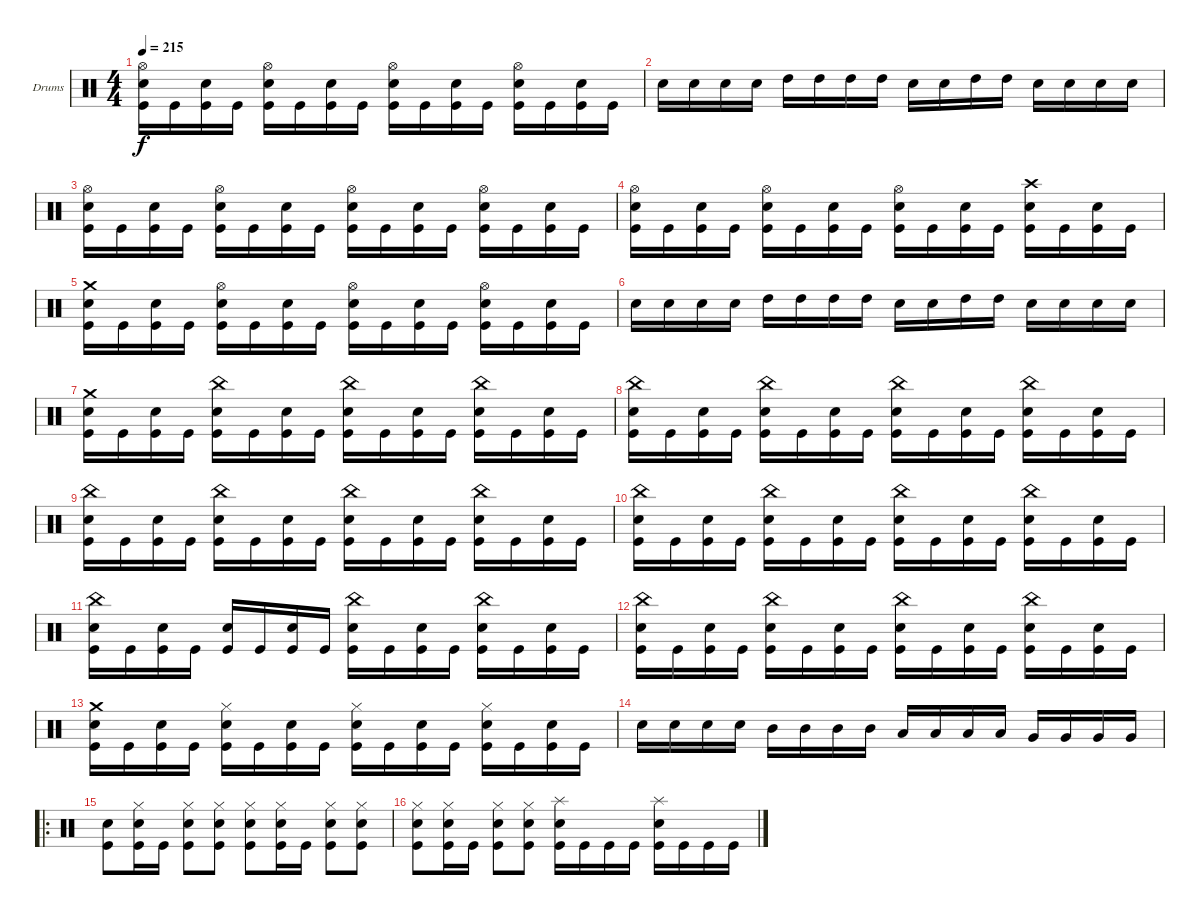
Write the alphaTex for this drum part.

\defaultSystemsLayout 4
\bracketExtendMode groupsimilarinstruments
\firstSystemTrackNameOrientation horizontal
\otherSystemsTrackNameOrientation horizontal
\track ("Trey Williams" "Drums") {instrument percussion}
\staff {score}
\articulation defaults
\ts (4 4)
\tempo 215
\clef neutral
\ks c
("Kick (hit)" "Snare (hit) 2" "Hi-Hat (open)").16{dy f} "Kick (hit)".16 ("Kick (hit)" "Snare (hit) 2").16 "Kick (hit)".16 ("Kick (hit)" "Snare (hit) 2" "Hi-Hat (open)").16 "Kick (hit)".16 ("Kick (hit)" "Snare (hit) 2").16 "Kick (hit)".16 ("Kick (hit)" "Snare (hit) 2" "Hi-Hat (open)").16 "Kick (hit)".16 ("Kick (hit)" "Snare (hit) 2").16 "Kick (hit)".16 ("Kick (hit)" "Snare (hit) 2" "Hi-Hat (open)").16 "Kick (hit)".16 ("Kick (hit)" "Snare (hit) 2").16 "Kick (hit)".16 |
"Snare (hit) 2".16 "Snare (hit) 2".16 "Snare (hit) 2".16 "Snare (hit) 2".16 "High Tom (hit)".16 "High Tom (hit)".16 "High Tom (hit)".16 "High Tom (hit)".16 "Snare (hit) 2".16 "Snare (hit) 2".16 "High Tom (hit)".16 "High Tom (hit)".16 "Snare (hit) 2".16 "Snare (hit) 2".16 "Snare (hit) 2".16 "Snare (hit) 2".16 |
("Kick (hit)" "Snare (hit) 2" "Hi-Hat (open)").16 "Kick (hit)".16 ("Kick (hit)" "Snare (hit) 2").16 "Kick (hit)".16 ("Kick (hit)" "Snare (hit) 2" "Hi-Hat (open)").16 "Kick (hit)".16 ("Kick (hit)" "Snare (hit) 2").16 "Kick (hit)".16 ("Kick (hit)" "Snare (hit) 2" "Hi-Hat (open)").16 "Kick (hit)".16 ("Kick (hit)" "Snare (hit) 2").16 "Kick (hit)".16 ("Kick (hit)" "Snare (hit) 2" "Hi-Hat (open)").16 "Kick (hit)".16 ("Kick (hit)" "Snare (hit) 2").16 "Kick (hit)".16 |
("Kick (hit)" "Snare (hit) 2" "Hi-Hat (open)").16 "Kick (hit)".16 ("Kick (hit)" "Snare (hit) 2").16 "Kick (hit)".16 ("Kick (hit)" "Snare (hit) 2" "Hi-Hat (open)").16 "Kick (hit)".16 ("Kick (hit)" "Snare (hit) 2").16 "Kick (hit)".16 ("Kick (hit)" "Snare (hit) 2" "Hi-Hat (open)").16 "Kick (hit)".16 ("Kick (hit)" "Snare (hit) 2").16 "Kick (hit)".16 ("Kick (hit)" "Snare (hit) 2" "Crash high (hit)").16 "Kick (hit)".16 ("Kick (hit)" "Snare (hit) 2").16 "Kick (hit)".16 |
("Kick (hit)" "Snare (hit) 2" "Crash medium (hit)").16 "Kick (hit)".16 ("Kick (hit)" "Snare (hit) 2").16 "Kick (hit)".16 ("Kick (hit)" "Snare (hit) 2" "Hi-Hat (open)").16 "Kick (hit)".16 ("Kick (hit)" "Snare (hit) 2").16 "Kick (hit)".16 ("Kick (hit)" "Snare (hit) 2" "Hi-Hat (open)").16 "Kick (hit)".16 ("Kick (hit)" "Snare (hit) 2").16 "Kick (hit)".16 ("Kick (hit)" "Snare (hit) 2" "Hi-Hat (open)").16 "Kick (hit)".16 ("Kick (hit)" "Snare (hit) 2").16 "Kick (hit)".16 |
"Snare (hit) 2".16 "Snare (hit) 2".16 "Snare (hit) 2".16 "Snare (hit) 2".16 "High Tom (hit)".16 "High Tom (hit)".16 "High Tom (hit)".16 "High Tom (hit)".16 "Snare (hit) 2".16 "Snare (hit) 2".16 "High Tom (hit)".16 "High Tom (hit)".16 "Snare (hit) 2".16 "Snare (hit) 2".16 "Snare (hit) 2".16 "Snare (hit) 2".16 |
("Kick (hit)" "Snare (hit) 2" "Crash medium (hit)").16 "Kick (hit)".16 ("Kick (hit)" "Snare (hit) 2").16 "Kick (hit)".16 ("Kick (hit)" "Snare (hit) 2" "China (hit)").16 "Kick (hit)".16 ("Kick (hit)" "Snare (hit) 2").16 "Kick (hit)".16 ("Kick (hit)" "Snare (hit) 2" "China (hit)").16 "Kick (hit)".16 ("Kick (hit)" "Snare (hit) 2").16 "Kick (hit)".16 ("Kick (hit)" "Snare (hit) 2" "China (hit)").16 "Kick (hit)".16 ("Kick (hit)" "Snare (hit) 2").16 "Kick (hit)".16 |
("Kick (hit)" "Snare (hit) 2" "China (hit)").16 "Kick (hit)".16 ("Kick (hit)" "Snare (hit) 2").16 "Kick (hit)".16 ("Kick (hit)" "Snare (hit) 2" "China (hit)").16 "Kick (hit)".16 ("Kick (hit)" "Snare (hit) 2").16 "Kick (hit)".16 ("Kick (hit)" "Snare (hit) 2" "China (hit)").16 "Kick (hit)".16 ("Kick (hit)" "Snare (hit) 2").16 "Kick (hit)".16 ("Kick (hit)" "Snare (hit) 2" "China (hit)").16 "Kick (hit)".16 ("Kick (hit)" "Snare (hit) 2").16 "Kick (hit)".16 |
("Kick (hit)" "Snare (hit) 2" "China (hit)").16 "Kick (hit)".16 ("Kick (hit)" "Snare (hit) 2").16 "Kick (hit)".16 ("Kick (hit)" "Snare (hit) 2" "China (hit)").16 "Kick (hit)".16 ("Kick (hit)" "Snare (hit) 2").16 "Kick (hit)".16 ("Kick (hit)" "Snare (hit) 2" "China (hit)").16 "Kick (hit)".16 ("Kick (hit)" "Snare (hit) 2").16 "Kick (hit)".16 ("Kick (hit)" "Snare (hit) 2" "China (hit)").16 "Kick (hit)".16 ("Kick (hit)" "Snare (hit) 2").16 "Kick (hit)".16 |
("Kick (hit)" "Snare (hit) 2" "China (hit)").16 "Kick (hit)".16 ("Kick (hit)" "Snare (hit) 2").16 "Kick (hit)".16 ("Kick (hit)" "Snare (hit) 2" "China (hit)").16 "Kick (hit)".16 ("Kick (hit)" "Snare (hit) 2").16 "Kick (hit)".16 ("Kick (hit)" "Snare (hit) 2" "China (hit)").16 "Kick (hit)".16 ("Kick (hit)" "Snare (hit) 2").16 "Kick (hit)".16 ("Kick (hit)" "Snare (hit) 2" "China (hit)").16 "Kick (hit)".16 ("Kick (hit)" "Snare (hit) 2").16 "Kick (hit)".16 |
("Kick (hit)" "Snare (hit) 2" "China (hit)").16 "Kick (hit)".16 ("Kick (hit)" "Snare (hit) 2").16 "Kick (hit)".16 ("Kick (hit)" "Snare (hit) 2").16 "Kick (hit)".16 ("Kick (hit)" "Snare (hit) 2").16 "Kick (hit)".16 ("Kick (hit)" "Snare (hit) 2" "China (hit)").16 "Kick (hit)".16 ("Kick (hit)" "Snare (hit) 2").16 "Kick (hit)".16 ("Kick (hit)" "Snare (hit) 2" "China (hit)").16 "Kick (hit)".16 ("Kick (hit)" "Snare (hit) 2").16 "Kick (hit)".16 |
("Kick (hit)" "Snare (hit) 2" "China (hit)").16 "Kick (hit)".16 ("Kick (hit)" "Snare (hit) 2").16 "Kick (hit)".16 ("Kick (hit)" "Snare (hit) 2" "China (hit)").16 "Kick (hit)".16 ("Kick (hit)" "Snare (hit) 2").16 "Kick (hit)".16 ("Kick (hit)" "Snare (hit) 2" "China (hit)").16 "Kick (hit)".16 ("Kick (hit)" "Snare (hit) 2").16 "Kick (hit)".16 ("Kick (hit)" "Snare (hit) 2" "China (hit)").16 "Kick (hit)".16 ("Kick (hit)" "Snare (hit) 2").16 "Kick (hit)".16 |
("Kick (hit)" "Snare (hit) 2" "Crash medium (hit)").16 "Kick (hit)".16 ("Kick (hit)" "Snare (hit) 2").16 "Kick (hit)".16 ("Kick (hit)" "Snare (hit) 2" "Hi-Hat (closed)").16 "Kick (hit)".16 ("Kick (hit)" "Snare (hit) 2").16 "Kick (hit)".16 ("Kick (hit)" "Snare (hit) 2" "Hi-Hat (closed)").16 "Kick (hit)".16 ("Kick (hit)" "Snare (hit) 2").16 "Kick (hit)".16 ("Kick (hit)" "Snare (hit) 2" "Hi-Hat (closed)").16 "Kick (hit)".16 ("Kick (hit)" "Snare (hit) 2").16 "Kick (hit)".16 |
"Snare (hit) 2".16 "Snare (hit) 2".16 "Snare (hit) 2".16 "Snare (hit) 2".16 "Mid Tom (hit)".16 "Mid Tom (hit)".16 "Mid Tom (hit)".16 "Mid Tom (hit)".16 "Low Tom (hit)".16 "Low Tom (hit)".16 "Low Tom (hit)".16 "Low Tom (hit)".16 "Very Low Tom (hit)".16 "Very Low Tom (hit)".16 "Very Low Tom (hit)".16 "Very Low Tom (hit)".16 |
\ro
("Kick (hit)" "Snare (hit) 2").8 ("Kick (hit)" "Snare (hit) 2" "Hi-Hat (closed)").16 "Kick (hit)".16 ("Kick (hit)" "Snare (hit) 2" "Hi-Hat (closed)").8 ("Kick (hit)" "Snare (hit) 2" "Hi-Hat (closed)").8 ("Kick (hit)" "Snare (hit) 2" "Hi-Hat (closed)").8 ("Kick (hit)" "Snare (hit) 2" "Hi-Hat (closed)").16 "Kick (hit)".16 ("Kick (hit)" "Snare (hit) 2" "Hi-Hat (closed)").8 ("Kick (hit)" "Snare (hit) 2" "Hi-Hat (closed)").8 |
("Kick (hit)" "Snare (hit) 2" "Hi-Hat (closed)").8 ("Kick (hit)" "Snare (hit) 2" "Hi-Hat (closed)").16 "Kick (hit)".16 ("Kick (hit)" "Snare (hit) 2" "Hi-Hat (closed)").8 ("Kick (hit)" "Snare (hit) 2" "Hi-Hat (closed)").8 ("Kick (hit)" "Snare (hit) 2" "Splash (hit)").16 "Kick (hit)".16 "Kick (hit)".16 "Kick (hit)".16 ("Kick (hit)" "Snare (hit) 2" "Splash (hit)").16 "Kick (hit)".16 "Kick (hit)".16 "Kick (hit)".16
